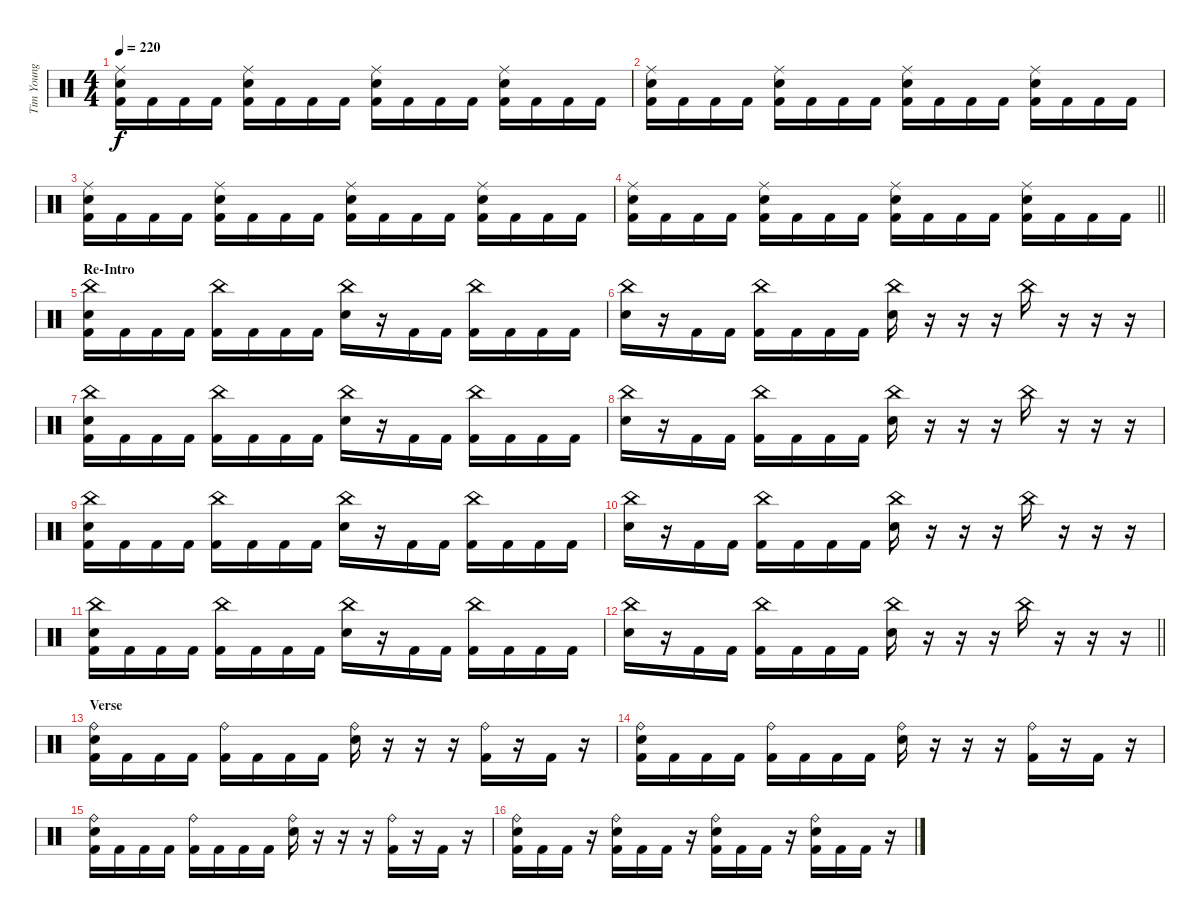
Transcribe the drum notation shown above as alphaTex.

\track ("Tim Young - Drums" "Tim Young ") {instrument percussion}
\staff {score}
\articulation defaults
\ts (4 4)
\tempo 220
\clef neutral
\ks c
("Ride (middle)" "Electric Snare (hit)" "Kick (hit) 2").16{dy f} "Kick (hit) 2".16 "Kick (hit) 2".16 "Kick (hit) 2".16 ("Ride (middle)" "Electric Snare (hit)" "Kick (hit) 2").16 "Kick (hit) 2".16 "Kick (hit) 2".16 "Kick (hit) 2".16 ("Ride (middle)" "Electric Snare (hit)" "Kick (hit) 2").16 "Kick (hit) 2".16 "Kick (hit) 2".16 "Kick (hit) 2".16 ("Ride (middle)" "Electric Snare (hit)" "Kick (hit) 2").16 "Kick (hit) 2".16 "Kick (hit) 2".16 "Kick (hit) 2".16 |
("Ride (middle)" "Electric Snare (hit)" "Kick (hit) 2").16 "Kick (hit) 2".16 "Kick (hit) 2".16 "Kick (hit) 2".16 ("Ride (middle)" "Electric Snare (hit)" "Kick (hit) 2").16 "Kick (hit) 2".16 "Kick (hit) 2".16 "Kick (hit) 2".16 ("Ride (middle)" "Electric Snare (hit)" "Kick (hit) 2").16 "Kick (hit) 2".16 "Kick (hit) 2".16 "Kick (hit) 2".16 ("Ride (middle)" "Electric Snare (hit)" "Kick (hit) 2").16 "Kick (hit) 2".16 "Kick (hit) 2".16 "Kick (hit) 2".16 |
("Ride (middle)" "Electric Snare (hit)" "Kick (hit) 2").16 "Kick (hit) 2".16 "Kick (hit) 2".16 "Kick (hit) 2".16 ("Ride (middle)" "Electric Snare (hit)" "Kick (hit) 2").16 "Kick (hit) 2".16 "Kick (hit) 2".16 "Kick (hit) 2".16 ("Ride (middle)" "Electric Snare (hit)" "Kick (hit) 2").16 "Kick (hit) 2".16 "Kick (hit) 2".16 "Kick (hit) 2".16 ("Ride (middle)" "Electric Snare (hit)" "Kick (hit) 2").16 "Kick (hit) 2".16 "Kick (hit) 2".16 "Kick (hit) 2".16 |
\barLineRight lightlight
("Ride (middle)" "Electric Snare (hit)" "Kick (hit) 2").16 "Kick (hit) 2".16 "Kick (hit) 2".16 "Kick (hit) 2".16 ("Ride (middle)" "Electric Snare (hit)" "Kick (hit) 2").16 "Kick (hit) 2".16 "Kick (hit) 2".16 "Kick (hit) 2".16 ("Ride (middle)" "Electric Snare (hit)" "Kick (hit) 2").16 "Kick (hit) 2".16 "Kick (hit) 2".16 "Kick (hit) 2".16 ("Ride (middle)" "Electric Snare (hit)" "Kick (hit) 2").16 "Kick (hit) 2".16 "Kick (hit) 2".16 "Kick (hit) 2".16 |
\section ("" "Re-Intro")
("China (hit)" "Electric Snare (hit)" "Kick (hit) 2").16 "Kick (hit) 2".16 "Kick (hit) 2".16 "Kick (hit) 2".16 ("China (hit)" "Kick (hit) 2").16 "Kick (hit) 2".16 "Kick (hit) 2".16 "Kick (hit) 2".16 ("China (hit)" "Electric Snare (hit)").16 r.16 "Kick (hit) 2".16 "Kick (hit) 2".16 ("China (hit)" "Kick (hit) 2").16 "Kick (hit) 2".16 "Kick (hit) 2".16 "Kick (hit) 2".16 |
("China (hit)" "Electric Snare (hit)").16 r.16 "Kick (hit) 2".16 "Kick (hit) 2".16 ("China (hit)" "Kick (hit) 2").16 "Kick (hit) 2".16 "Kick (hit) 2".16 "Kick (hit) 2".16 ("China (hit)" "Electric Snare (hit)").16 r.16 r.16 r.16 "China (hit)".16 r.16 r.16 r.16 |
("China (hit)" "Electric Snare (hit)" "Kick (hit) 2").16 "Kick (hit) 2".16 "Kick (hit) 2".16 "Kick (hit) 2".16 ("China (hit)" "Kick (hit) 2").16 "Kick (hit) 2".16 "Kick (hit) 2".16 "Kick (hit) 2".16 ("China (hit)" "Electric Snare (hit)").16 r.16 "Kick (hit) 2".16 "Kick (hit) 2".16 ("China (hit)" "Kick (hit) 2").16 "Kick (hit) 2".16 "Kick (hit) 2".16 "Kick (hit) 2".16 |
("China (hit)" "Electric Snare (hit)").16 r.16 "Kick (hit) 2".16 "Kick (hit) 2".16 ("China (hit)" "Kick (hit) 2").16 "Kick (hit) 2".16 "Kick (hit) 2".16 "Kick (hit) 2".16 ("China (hit)" "Electric Snare (hit)").16 r.16 r.16 r.16 "China (hit)".16 r.16 r.16 r.16 |
("China (hit)" "Electric Snare (hit)" "Kick (hit) 2").16 "Kick (hit) 2".16 "Kick (hit) 2".16 "Kick (hit) 2".16 ("China (hit)" "Kick (hit) 2").16 "Kick (hit) 2".16 "Kick (hit) 2".16 "Kick (hit) 2".16 ("China (hit)" "Electric Snare (hit)").16 r.16 "Kick (hit) 2".16 "Kick (hit) 2".16 ("China (hit)" "Kick (hit) 2").16 "Kick (hit) 2".16 "Kick (hit) 2".16 "Kick (hit) 2".16 |
("China (hit)" "Electric Snare (hit)").16 r.16 "Kick (hit) 2".16 "Kick (hit) 2".16 ("China (hit)" "Kick (hit) 2").16 "Kick (hit) 2".16 "Kick (hit) 2".16 "Kick (hit) 2".16 ("China (hit)" "Electric Snare (hit)").16 r.16 r.16 r.16 "China (hit)".16 r.16 r.16 r.16 |
("China (hit)" "Electric Snare (hit)" "Kick (hit) 2").16 "Kick (hit) 2".16 "Kick (hit) 2".16 "Kick (hit) 2".16 ("China (hit)" "Kick (hit) 2").16 "Kick (hit) 2".16 "Kick (hit) 2".16 "Kick (hit) 2".16 ("China (hit)" "Electric Snare (hit)").16 r.16 "Kick (hit) 2".16 "Kick (hit) 2".16 ("China (hit)" "Kick (hit) 2").16 "Kick (hit) 2".16 "Kick (hit) 2".16 "Kick (hit) 2".16 |
\barLineRight lightlight
("China (hit)" "Electric Snare (hit)").16 r.16 "Kick (hit) 2".16 "Kick (hit) 2".16 ("China (hit)" "Kick (hit) 2").16 "Kick (hit) 2".16 "Kick (hit) 2".16 "Kick (hit) 2".16 ("China (hit)" "Electric Snare (hit)").16 r.16 r.16 r.16 "China (hit)".16 r.16 r.16 r.16 |
\section ("" "Verse")
("Ride (bell)" "Electric Snare (hit)" "Kick (hit) 2").16 "Kick (hit) 2".16 "Kick (hit) 2".16 "Kick (hit) 2".16 ("Ride (bell)" "Kick (hit) 2").16 "Kick (hit) 2".16 "Kick (hit) 2".16 "Kick (hit) 2".16 ("Ride (bell)" "Electric Snare (hit)").16 r.16 r.16 r.16 ("Ride (bell)" "Kick (hit) 2").16 r.16 "Kick (hit) 2".16 r.16 |
("Ride (bell)" "Electric Snare (hit)" "Kick (hit) 2").16 "Kick (hit) 2".16 "Kick (hit) 2".16 "Kick (hit) 2".16 ("Ride (bell)" "Kick (hit) 2").16 "Kick (hit) 2".16 "Kick (hit) 2".16 "Kick (hit) 2".16 ("Ride (bell)" "Electric Snare (hit)").16 r.16 r.16 r.16 ("Ride (bell)" "Kick (hit) 2").16 r.16 "Kick (hit) 2".16 r.16 |
("Ride (bell)" "Electric Snare (hit)" "Kick (hit) 2").16 "Kick (hit) 2".16 "Kick (hit) 2".16 "Kick (hit) 2".16 ("Ride (bell)" "Kick (hit) 2").16 "Kick (hit) 2".16 "Kick (hit) 2".16 "Kick (hit) 2".16 ("Ride (bell)" "Electric Snare (hit)").16 r.16 r.16 r.16 ("Ride (bell)" "Kick (hit) 2").16 r.16 "Kick (hit) 2".16 r.16 |
("Ride (bell)" "Electric Snare (hit)" "Kick (hit) 2").16 "Kick (hit) 2".16 "Kick (hit) 2".16 r.16 ("Ride (bell)" "Electric Snare (hit)" "Kick (hit) 2").16 "Kick (hit) 2".16 "Kick (hit) 2".16 r.16 ("Ride (bell)" "Electric Snare (hit)" "Kick (hit) 2").16 "Kick (hit) 2".16 "Kick (hit) 2".16 r.16 ("Ride (bell)" "Electric Snare (hit)" "Kick (hit) 2").16 "Kick (hit) 2".16 "Kick (hit) 2".16 r.16
